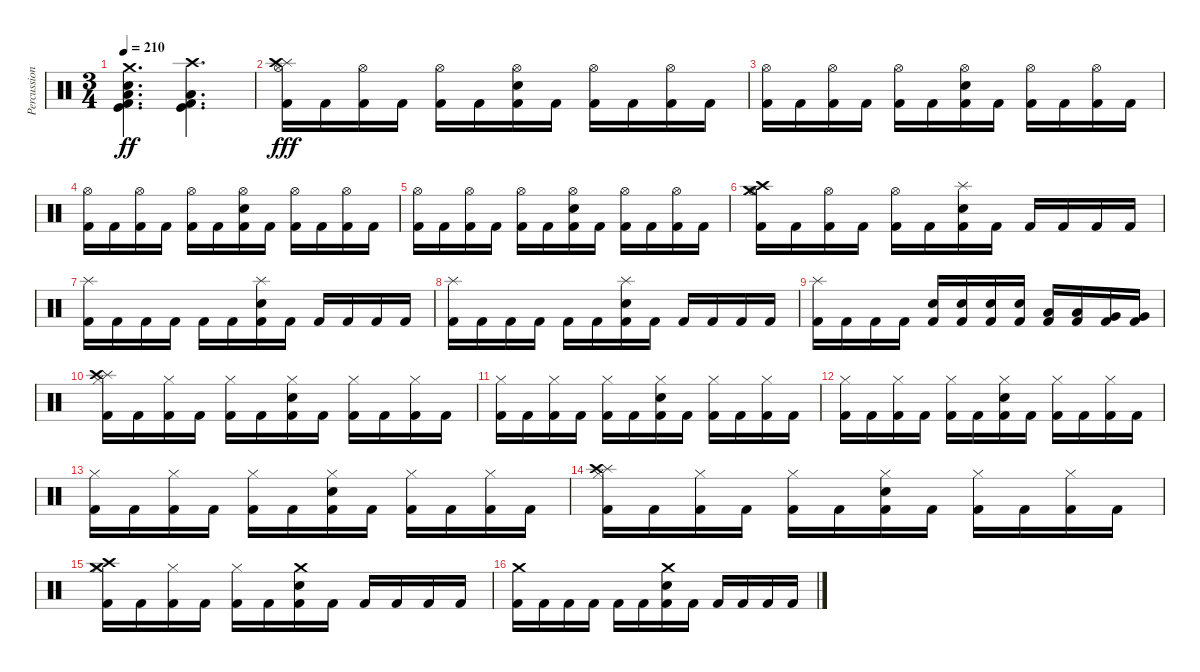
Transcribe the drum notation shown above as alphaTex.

\track ("Percussions" "Percussion") {instrument percussion}
\staff {score}
\articulation defaults
\ts (3 4)
\tempo 210
\clef neutral
\ks c
("Crash medium (hit)" "Electric Snare (hit)" "Low Floor Tom (hit)" "Kick (hit) 2" "Kick (hit)").4{d dy ff} ("Crash high (hit)" "Low Floor Tom (hit)" "Kick (hit) 2" "Kick (hit)").4{d} |
("Splash (hit)" "Crash high (hit)" "Hi-Hat (open)" "Kick (hit) 2").16{dy fff} "Kick (hit) 2".16 ("Hi-Hat (open)" "Kick (hit) 2").16 "Kick (hit) 2".16 ("Hi-Hat (open)" "Kick (hit) 2").16 "Kick (hit) 2".16 ("Electric Snare (hit)" "Hi-Hat (open)" "Kick (hit) 2").16 "Kick (hit) 2".16 ("Hi-Hat (open)" "Kick (hit) 2").16 "Kick (hit) 2".16 ("Hi-Hat (open)" "Kick (hit) 2").16 "Kick (hit) 2".16 |
("Hi-Hat (open)" "Kick (hit) 2").16 "Kick (hit) 2".16 ("Hi-Hat (open)" "Kick (hit) 2").16 "Kick (hit) 2".16 ("Hi-Hat (open)" "Kick (hit) 2").16 "Kick (hit) 2".16 ("Electric Snare (hit)" "Hi-Hat (open)" "Kick (hit) 2").16 "Kick (hit) 2".16 ("Hi-Hat (open)" "Kick (hit) 2").16 "Kick (hit) 2".16 ("Hi-Hat (open)" "Kick (hit) 2").16 "Kick (hit) 2".16 |
("Hi-Hat (open)" "Kick (hit) 2").16 "Kick (hit) 2".16 ("Hi-Hat (open)" "Kick (hit) 2").16 "Kick (hit) 2".16 ("Hi-Hat (open)" "Kick (hit) 2").16 "Kick (hit) 2".16 ("Electric Snare (hit)" "Hi-Hat (open)" "Kick (hit) 2").16 "Kick (hit) 2".16 ("Hi-Hat (open)" "Kick (hit) 2").16 "Kick (hit) 2".16 ("Hi-Hat (open)" "Kick (hit) 2").16 "Kick (hit) 2".16 |
("Hi-Hat (open)" "Kick (hit) 2").16 "Kick (hit) 2".16 ("Hi-Hat (open)" "Kick (hit) 2").16 "Kick (hit) 2".16 ("Hi-Hat (open)" "Kick (hit) 2").16 "Kick (hit) 2".16 ("Electric Snare (hit)" "Hi-Hat (open)" "Kick (hit) 2").16 "Kick (hit) 2".16 ("Hi-Hat (open)" "Kick (hit) 2").16 "Kick (hit) 2".16 ("Hi-Hat (open)" "Kick (hit) 2").16 "Kick (hit) 2".16 |
("Crash medium (hit)" "Crash high (hit)" "Hi-Hat (open)" "Kick (hit) 2").16 "Kick (hit) 2".16 ("Hi-Hat (open)" "Kick (hit) 2").16 "Kick (hit) 2".16 ("Hi-Hat (open)" "Kick (hit) 2").16 "Kick (hit) 2".16 ("Electric Snare (hit)" "Splash (hit)" "Kick (hit) 2").16 "Kick (hit) 2".16 "Kick (hit) 2".16 "Kick (hit) 2".16 "Kick (hit) 2".16 "Kick (hit) 2".16 |
("Splash (hit)" "Kick (hit) 2").16 "Kick (hit) 2".16 "Kick (hit) 2".16 "Kick (hit) 2".16 "Kick (hit) 2".16 "Kick (hit) 2".16 ("Electric Snare (hit)" "Splash (hit)" "Kick (hit) 2").16 "Kick (hit) 2".16 "Kick (hit) 2".16 "Kick (hit) 2".16 "Kick (hit) 2".16 "Kick (hit) 2".16 |
("Splash (hit)" "Kick (hit) 2").16 "Kick (hit) 2".16 "Kick (hit) 2".16 "Kick (hit) 2".16 "Kick (hit) 2".16 "Kick (hit) 2".16 ("Electric Snare (hit)" "Splash (hit)" "Kick (hit) 2").16 "Kick (hit) 2".16 "Kick (hit) 2".16 "Kick (hit) 2".16 "Kick (hit) 2".16 "Kick (hit) 2".16 |
("Splash (hit)" "Kick (hit) 2").16 "Kick (hit) 2".16 "Kick (hit) 2".16 "Kick (hit) 2".16 ("Electric Snare (hit)" "Kick (hit) 2").16 ("Electric Snare (hit)" "Kick (hit) 2").16 ("Electric Snare (hit)" "Kick (hit) 2").16 ("Electric Snare (hit)" "Kick (hit) 2").16 ("Low Floor Tom (hit)" "Kick (hit) 2").16 ("Low Floor Tom (hit)" "Kick (hit) 2").16 ("Very Low Tom (hit)" "Kick (hit) 2").16 ("Very Low Tom (hit)" "Kick (hit) 2").16 |
("Splash (hit)" "Crash high (hit)" "Hi-Hat (closed)" "Kick (hit) 2").16 "Kick (hit) 2".16 ("Hi-Hat (closed)" "Kick (hit) 2").16 "Kick (hit) 2".16 ("Hi-Hat (closed)" "Kick (hit) 2").16 "Kick (hit) 2".16 ("Electric Snare (hit)" "Hi-Hat (closed)" "Kick (hit) 2").16 "Kick (hit) 2".16 ("Hi-Hat (closed)" "Kick (hit) 2").16 "Kick (hit) 2".16 ("Hi-Hat (closed)" "Kick (hit) 2").16 "Kick (hit) 2".16 |
("Hi-Hat (closed)" "Kick (hit) 2").16 "Kick (hit) 2".16 ("Hi-Hat (closed)" "Kick (hit) 2").16 "Kick (hit) 2".16 ("Hi-Hat (closed)" "Kick (hit) 2").16 "Kick (hit) 2".16 ("Electric Snare (hit)" "Hi-Hat (closed)" "Kick (hit) 2").16 "Kick (hit) 2".16 ("Hi-Hat (closed)" "Kick (hit) 2").16 "Kick (hit) 2".16 ("Hi-Hat (closed)" "Kick (hit) 2").16 "Kick (hit) 2".16 |
("Hi-Hat (closed)" "Kick (hit) 2").16 "Kick (hit) 2".16 ("Hi-Hat (closed)" "Kick (hit) 2").16 "Kick (hit) 2".16 ("Hi-Hat (closed)" "Kick (hit) 2").16 "Kick (hit) 2".16 ("Electric Snare (hit)" "Hi-Hat (closed)" "Kick (hit) 2").16 "Kick (hit) 2".16 ("Hi-Hat (closed)" "Kick (hit) 2").16 "Kick (hit) 2".16 ("Hi-Hat (closed)" "Kick (hit) 2").16 "Kick (hit) 2".16 |
("Hi-Hat (closed)" "Kick (hit) 2").16 "Kick (hit) 2".16 ("Hi-Hat (closed)" "Kick (hit) 2").16 "Kick (hit) 2".16 ("Hi-Hat (closed)" "Kick (hit) 2").16 "Kick (hit) 2".16 ("Electric Snare (hit)" "Hi-Hat (closed)" "Kick (hit) 2").16 "Kick (hit) 2".16 ("Hi-Hat (closed)" "Kick (hit) 2").16 "Kick (hit) 2".16 ("Hi-Hat (closed)" "Kick (hit) 2").16 "Kick (hit) 2".16 |
("Splash (hit)" "Crash high (hit)" "Hi-Hat (closed)" "Kick (hit) 2").16 "Kick (hit) 2".16 ("Hi-Hat (closed)" "Kick (hit) 2").16 "Kick (hit) 2".16 ("Hi-Hat (closed)" "Kick (hit) 2").16 "Kick (hit) 2".16 ("Electric Snare (hit)" "Hi-Hat (closed)" "Kick (hit) 2").16 "Kick (hit) 2".16 ("Hi-Hat (closed)" "Kick (hit) 2").16 "Kick (hit) 2".16 ("Hi-Hat (closed)" "Kick (hit) 2").16 "Kick (hit) 2".16 |
("Crash medium (hit)" "Crash high (hit)" "Hi-Hat (closed)" "Kick (hit) 2").16 "Kick (hit) 2".16 ("Hi-Hat (closed)" "Kick (hit) 2").16 "Kick (hit) 2".16 ("Hi-Hat (closed)" "Kick (hit) 2").16 "Kick (hit) 2".16 ("Electric Snare (hit)" "Crash medium (hit)" "Kick (hit) 2").16 "Kick (hit) 2".16 "Kick (hit) 2".16 "Kick (hit) 2".16 "Kick (hit) 2".16 "Kick (hit) 2".16 |
("Crash medium (hit)" "Kick (hit) 2").16 "Kick (hit) 2".16 "Kick (hit) 2".16 "Kick (hit) 2".16 "Kick (hit) 2".16 "Kick (hit) 2".16 ("Electric Snare (hit)" "Crash medium (hit)" "Kick (hit) 2").16 "Kick (hit) 2".16 "Kick (hit) 2".16 "Kick (hit) 2".16 "Kick (hit) 2".16 "Kick (hit) 2".16
